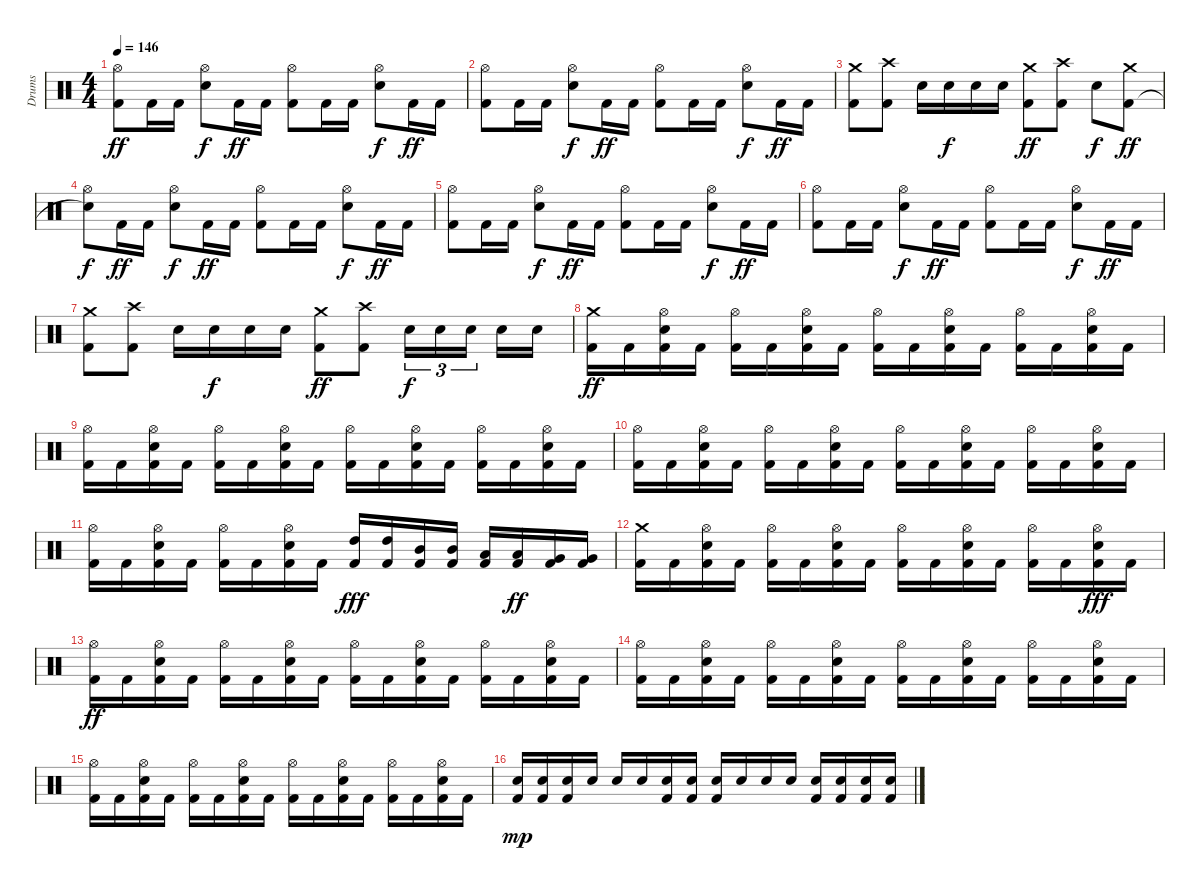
\track ("Drums" "Drums") {instrument percussion}
\staff {score}
\articulation defaults
\ts (4 4)
\tempo 146
\clef neutral
\ks c
("Kick (hit) 2" "Hi-Hat (open)").8{dy ff} "Kick (hit) 2".16 "Kick (hit) 2".16 ("Electric Snare (hit)" "Hi-Hat (open)").8{dy f} "Kick (hit) 2".16{dy ff} "Kick (hit) 2".16 ("Kick (hit) 2" "Hi-Hat (open)").8 "Kick (hit) 2".16 "Kick (hit) 2".16 ("Electric Snare (hit)" "Hi-Hat (open)").8{dy f} "Kick (hit) 2".16{dy ff} "Kick (hit) 2".16 |
("Kick (hit) 2" "Hi-Hat (open)").8 "Kick (hit) 2".16 "Kick (hit) 2".16 ("Electric Snare (hit)" "Hi-Hat (open)").8{dy f} "Kick (hit) 2".16{dy ff} "Kick (hit) 2".16 ("Kick (hit) 2" "Hi-Hat (open)").8 "Kick (hit) 2".16 "Kick (hit) 2".16 ("Electric Snare (hit)" "Hi-Hat (open)").8{dy f} "Kick (hit) 2".16{dy ff} "Kick (hit) 2".16 |
("Kick (hit) 2" "Crash medium (hit)").8 ("Kick (hit) 2" "Crash high (hit)").8 "Electric Snare (hit)".16 "Electric Snare (hit)".16{dy f} "Electric Snare (hit)".16 "Electric Snare (hit)".16 ("Kick (hit) 2" "Crash medium (hit)").8{dy ff} ("Kick (hit) 2" "Crash high (hit)").8 "Electric Snare (hit)".8{dy f} ("Kick (hit) 2" "Crash medium (hit)").8{dy ff} |
("Snare (hit)"{t} "Hi-Hat (open)").8{dy f} "Kick (hit) 2".16{dy ff} "Kick (hit) 2".16 ("Electric Snare (hit)" "Hi-Hat (open)").8{dy f} "Kick (hit) 2".16{dy ff} "Kick (hit) 2".16 ("Kick (hit) 2" "Hi-Hat (open)").8 "Kick (hit) 2".16 "Kick (hit) 2".16 ("Electric Snare (hit)" "Hi-Hat (open)").8{dy f} "Kick (hit) 2".16{dy ff} "Kick (hit) 2".16 |
("Kick (hit) 2" "Hi-Hat (open)").8 "Kick (hit) 2".16 "Kick (hit) 2".16 ("Electric Snare (hit)" "Hi-Hat (open)").8{dy f} "Kick (hit) 2".16{dy ff} "Kick (hit) 2".16 ("Kick (hit) 2" "Hi-Hat (open)").8 "Kick (hit) 2".16 "Kick (hit) 2".16 ("Electric Snare (hit)" "Hi-Hat (open)").8{dy f} "Kick (hit) 2".16{dy ff} "Kick (hit) 2".16 |
("Kick (hit) 2" "Hi-Hat (open)").8 "Kick (hit) 2".16 "Kick (hit) 2".16 ("Electric Snare (hit)" "Hi-Hat (open)").8{dy f} "Kick (hit) 2".16{dy ff} "Kick (hit) 2".16 ("Kick (hit) 2" "Hi-Hat (open)").8 "Kick (hit) 2".16 "Kick (hit) 2".16 ("Electric Snare (hit)" "Hi-Hat (open)").8{dy f} "Kick (hit) 2".16{dy ff} "Kick (hit) 2".16 |
("Kick (hit) 2" "Crash medium (hit)").8 ("Kick (hit) 2" "Crash high (hit)").8 "Electric Snare (hit)".16 "Electric Snare (hit)".16{dy f} "Electric Snare (hit)".16 "Electric Snare (hit)".16 ("Kick (hit) 2" "Crash medium (hit)").8{dy ff} ("Kick (hit) 2" "Crash high (hit)").8 "Electric Snare (hit)".16{tu (3 2) dy f} "Electric Snare (hit)".16{tu (3 2)} "Electric Snare (hit)".16{tu (3 2)} "Electric Snare (hit)".16 "Electric Snare (hit)".16 |
("Kick (hit) 2" "Crash medium (hit)").16{dy ff} "Kick (hit) 2".16 ("Kick (hit) 2" "Electric Snare (hit)" "Hi-Hat (open)").16 "Kick (hit) 2".16 ("Kick (hit) 2" "Hi-Hat (open)").16 "Kick (hit) 2".16 ("Kick (hit) 2" "Electric Snare (hit)" "Hi-Hat (open)").16 "Kick (hit) 2".16 ("Kick (hit) 2" "Hi-Hat (open)").16 "Kick (hit) 2".16 ("Kick (hit) 2" "Electric Snare (hit)" "Hi-Hat (open)").16 "Kick (hit) 2".16 ("Kick (hit) 2" "Hi-Hat (open)").16 "Kick (hit) 2".16 ("Kick (hit) 2" "Electric Snare (hit)" "Hi-Hat (open)").16 "Kick (hit) 2".16 |
("Kick (hit) 2" "Hi-Hat (open)").16 "Kick (hit) 2".16 ("Kick (hit) 2" "Electric Snare (hit)" "Hi-Hat (open)").16 "Kick (hit) 2".16 ("Kick (hit) 2" "Hi-Hat (open)").16 "Kick (hit) 2".16 ("Kick (hit) 2" "Electric Snare (hit)" "Hi-Hat (open)").16 "Kick (hit) 2".16 ("Kick (hit) 2" "Hi-Hat (open)").16 "Kick (hit) 2".16 ("Kick (hit) 2" "Electric Snare (hit)" "Hi-Hat (open)").16 "Kick (hit) 2".16 ("Kick (hit) 2" "Hi-Hat (open)").16 "Kick (hit) 2".16 ("Kick (hit) 2" "Electric Snare (hit)" "Hi-Hat (open)").16 "Kick (hit) 2".16 |
("Kick (hit) 2" "Hi-Hat (open)").16 "Kick (hit) 2".16 ("Kick (hit) 2" "Electric Snare (hit)" "Hi-Hat (open)").16 "Kick (hit) 2".16 ("Kick (hit) 2" "Hi-Hat (open)").16 "Kick (hit) 2".16 ("Kick (hit) 2" "Electric Snare (hit)" "Hi-Hat (open)").16 "Kick (hit) 2".16 ("Kick (hit) 2" "Hi-Hat (open)").16 "Kick (hit) 2".16 ("Kick (hit) 2" "Electric Snare (hit)" "Hi-Hat (open)").16 "Kick (hit) 2".16 ("Kick (hit) 2" "Hi-Hat (open)").16 "Kick (hit) 2".16 ("Kick (hit) 2" "Electric Snare (hit)" "Hi-Hat (open)").16 "Kick (hit) 2".16 |
("Kick (hit) 2" "Hi-Hat (open)").16 "Kick (hit) 2".16 ("Kick (hit) 2" "Electric Snare (hit)" "Hi-Hat (open)").16 "Kick (hit) 2".16 ("Kick (hit) 2" "Hi-Hat (open)").16 "Kick (hit) 2".16 ("Kick (hit) 2" "Electric Snare (hit)" "Hi-Hat (open)").16 "Kick (hit) 2".16 ("Kick (hit) 2" "High Tom (hit)").16{dy fff} ("Kick (hit) 2" "High Tom (hit)").16 ("Kick (hit) 2" "Mid Tom (hit)").16 ("Kick (hit) 2" "Mid Tom (hit)").16 ("Kick (hit) 2" "Low Tom (hit)").16 ("Kick (hit) 2" "Low Tom (hit)").16{dy ff} ("Kick (hit) 2" "Very Low Tom (hit)").16 ("Kick (hit) 2" "Very Low Tom (hit)").16 |
("Kick (hit) 2" "Crash medium (hit)").16 "Kick (hit) 2".16 ("Kick (hit) 2" "Electric Snare (hit)" "Hi-Hat (open)").16 "Kick (hit) 2".16 ("Kick (hit) 2" "Hi-Hat (open)").16 "Kick (hit) 2".16 ("Kick (hit) 2" "Electric Snare (hit)" "Hi-Hat (open)").16 "Kick (hit) 2".16 ("Kick (hit) 2" "Hi-Hat (open)").16 "Kick (hit) 2".16 ("Kick (hit) 2" "Electric Snare (hit)" "Hi-Hat (open)").16 "Kick (hit) 2".16 ("Kick (hit) 2" "Hi-Hat (open)").16 "Kick (hit) 2".16 ("Kick (hit) 2" "Electric Snare (hit)" "Hi-Hat (open)").16{dy fff} "Kick (hit) 2".16 |
("Kick (hit) 2" "Hi-Hat (open)").16{dy ff} "Kick (hit) 2".16 ("Kick (hit) 2" "Electric Snare (hit)" "Hi-Hat (open)").16 "Kick (hit) 2".16 ("Kick (hit) 2" "Hi-Hat (open)").16 "Kick (hit) 2".16 ("Kick (hit) 2" "Electric Snare (hit)" "Hi-Hat (open)").16 "Kick (hit) 2".16 ("Kick (hit) 2" "Hi-Hat (open)").16 "Kick (hit) 2".16 ("Kick (hit) 2" "Electric Snare (hit)" "Hi-Hat (open)").16 "Kick (hit) 2".16 ("Kick (hit) 2" "Hi-Hat (open)").16 "Kick (hit) 2".16 ("Kick (hit) 2" "Electric Snare (hit)" "Hi-Hat (open)").16 "Kick (hit) 2".16 |
("Kick (hit) 2" "Hi-Hat (open)").16 "Kick (hit) 2".16 ("Kick (hit) 2" "Electric Snare (hit)" "Hi-Hat (open)").16 "Kick (hit) 2".16 ("Kick (hit) 2" "Hi-Hat (open)").16 "Kick (hit) 2".16 ("Kick (hit) 2" "Electric Snare (hit)" "Hi-Hat (open)").16 "Kick (hit) 2".16 ("Kick (hit) 2" "Hi-Hat (open)").16 "Kick (hit) 2".16 ("Kick (hit) 2" "Electric Snare (hit)" "Hi-Hat (open)").16 "Kick (hit) 2".16 ("Kick (hit) 2" "Hi-Hat (open)").16 "Kick (hit) 2".16 ("Kick (hit) 2" "Electric Snare (hit)" "Hi-Hat (open)").16 "Kick (hit) 2".16 |
("Kick (hit) 2" "Hi-Hat (open)").16 "Kick (hit) 2".16 ("Kick (hit) 2" "Electric Snare (hit)" "Hi-Hat (open)").16 "Kick (hit) 2".16 ("Kick (hit) 2" "Hi-Hat (open)").16 "Kick (hit) 2".16 ("Kick (hit) 2" "Electric Snare (hit)" "Hi-Hat (open)").16 "Kick (hit) 2".16 ("Kick (hit) 2" "Hi-Hat (open)").16 "Kick (hit) 2".16 ("Kick (hit) 2" "Electric Snare (hit)" "Hi-Hat (open)").16 "Kick (hit) 2".16 ("Kick (hit) 2" "Hi-Hat (open)").16 "Kick (hit) 2".16 ("Kick (hit) 2" "Electric Snare (hit)" "Hi-Hat (open)").16 "Kick (hit) 2".16 |
("Kick (hit) 2" "Snare (hit) 2").16{dy mp} ("Kick (hit) 2" "Snare (hit) 2").16 ("Kick (hit) 2" "Snare (hit) 2").16 "Snare (hit) 2".16 "Snare (hit) 2".16 "Snare (hit) 2".16 ("Kick (hit) 2" "Snare (hit) 2").16 ("Kick (hit) 2" "Snare (hit) 2").16 ("Kick (hit) 2" "Snare (hit) 2").16 "Snare (hit) 2".16 "Snare (hit) 2".16 "Snare (hit) 2".16 ("Kick (hit) 2" "Snare (hit) 2").16 ("Kick (hit) 2" "Snare (hit) 2").16 ("Kick (hit) 2" "Snare (hit) 2").16 ("Kick (hit) 2" "Snare (hit) 2").16
